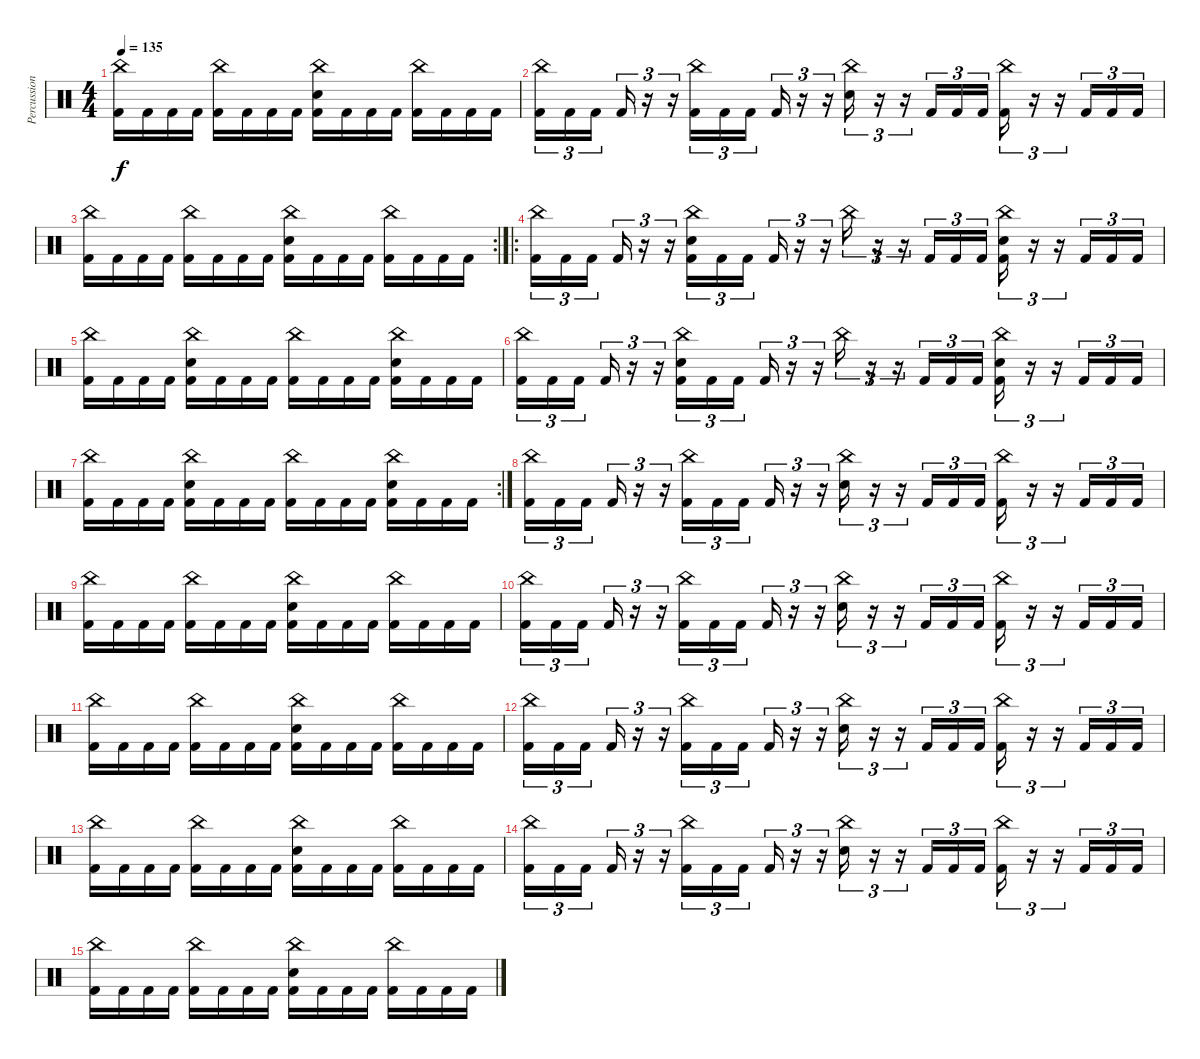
\track ("Percussion" "Percussion") {instrument percussion}
\staff {score}
\articulation defaults
\ts (4 4)
\tempo 135
\clef neutral
\ks c
("China (hit)" "Kick (hit) 2").16{dy f} "Kick (hit) 2".16 "Kick (hit) 2".16 "Kick (hit) 2".16 ("China (hit)" "Kick (hit) 2").16 "Kick (hit) 2".16 "Kick (hit) 2".16 "Kick (hit) 2".16 ("China (hit)" "Kick (hit) 2" "Electric Snare (hit)").16 "Kick (hit) 2".16 "Kick (hit) 2".16 "Kick (hit) 2".16 ("China (hit)" "Kick (hit) 2").16 "Kick (hit) 2".16 "Kick (hit) 2".16 "Kick (hit) 2".16 |
("Kick (hit) 2" "China (hit)").16{tu (3 2)} "Kick (hit) 2".16{tu (3 2)} "Kick (hit) 2".16{tu (3 2) beam splitsecondary} "Kick (hit) 2".16{tu (3 2)} r.16{tu (3 2)} r.16{tu (3 2)} ("Kick (hit) 2" "China (hit)").16{tu (3 2)} "Kick (hit) 2".16{tu (3 2)} "Kick (hit) 2".16{tu (3 2) beam splitsecondary} "Kick (hit) 2".16{tu (3 2)} r.16{tu (3 2)} r.16{tu (3 2)} ("China (hit)" "Electric Snare (hit)").16{tu (3 2)} r.16{tu (3 2)} r.16{tu (3 2)} "Kick (hit) 2".16{tu (3 2)} "Kick (hit) 2".16{tu (3 2)} "Kick (hit) 2".16{tu (3 2)} ("Kick (hit) 2" "China (hit)").16{tu (3 2)} r.16{tu (3 2)} r.16{tu (3 2)} "Kick (hit) 2".16{tu (3 2)} "Kick (hit) 2".16{tu (3 2)} "Kick (hit) 2".16{tu (3 2)} |
\rc 2
("China (hit)" "Kick (hit) 2").16 "Kick (hit) 2".16 "Kick (hit) 2".16 "Kick (hit) 2".16 ("China (hit)" "Kick (hit) 2").16 "Kick (hit) 2".16 "Kick (hit) 2".16 "Kick (hit) 2".16 ("China (hit)" "Kick (hit) 2" "Electric Snare (hit)").16 "Kick (hit) 2".16 "Kick (hit) 2".16 "Kick (hit) 2".16 ("China (hit)" "Kick (hit) 2").16 "Kick (hit) 2".16 "Kick (hit) 2".16 "Kick (hit) 2".16 |
\ro
("Kick (hit) 2" "China (hit)").16{tu (3 2)} "Kick (hit) 2".16{tu (3 2)} "Kick (hit) 2".16{tu (3 2) beam splitsecondary} "Kick (hit) 2".16{tu (3 2)} r.16{tu (3 2)} r.16{tu (3 2)} ("Kick (hit) 2" "China (hit)" "Electric Snare (hit)").16{tu (3 2)} "Kick (hit) 2".16{tu (3 2)} "Kick (hit) 2".16{tu (3 2) beam splitsecondary} "Kick (hit) 2".16{tu (3 2)} r.16{tu (3 2)} r.16{tu (3 2)} "China (hit)".16{tu (3 2)} r.16{tu (3 2)} r.16{tu (3 2)} "Kick (hit) 2".16{tu (3 2)} "Kick (hit) 2".16{tu (3 2)} "Kick (hit) 2".16{tu (3 2)} ("Kick (hit) 2" "China (hit)" "Electric Snare (hit)").16{tu (3 2)} r.16{tu (3 2)} r.16{tu (3 2)} "Kick (hit) 2".16{tu (3 2)} "Kick (hit) 2".16{tu (3 2)} "Kick (hit) 2".16{tu (3 2)} |
("China (hit)" "Kick (hit) 2").16 "Kick (hit) 2".16 "Kick (hit) 2".16 "Kick (hit) 2".16 ("China (hit)" "Kick (hit) 2" "Electric Snare (hit)").16 "Kick (hit) 2".16 "Kick (hit) 2".16 "Kick (hit) 2".16 ("China (hit)" "Kick (hit) 2").16 "Kick (hit) 2".16 "Kick (hit) 2".16 "Kick (hit) 2".16 ("China (hit)" "Kick (hit) 2" "Electric Snare (hit)").16 "Kick (hit) 2".16 "Kick (hit) 2".16 "Kick (hit) 2".16 |
("Kick (hit) 2" "China (hit)").16{tu (3 2)} "Kick (hit) 2".16{tu (3 2)} "Kick (hit) 2".16{tu (3 2) beam splitsecondary} "Kick (hit) 2".16{tu (3 2)} r.16{tu (3 2)} r.16{tu (3 2)} ("Kick (hit) 2" "China (hit)" "Electric Snare (hit)").16{tu (3 2)} "Kick (hit) 2".16{tu (3 2)} "Kick (hit) 2".16{tu (3 2) beam splitsecondary} "Kick (hit) 2".16{tu (3 2)} r.16{tu (3 2)} r.16{tu (3 2)} "China (hit)".16{tu (3 2)} r.16{tu (3 2)} r.16{tu (3 2)} "Kick (hit) 2".16{tu (3 2)} "Kick (hit) 2".16{tu (3 2)} "Kick (hit) 2".16{tu (3 2)} ("Kick (hit) 2" "China (hit)" "Electric Snare (hit)").16{tu (3 2)} r.16{tu (3 2)} r.16{tu (3 2)} "Kick (hit) 2".16{tu (3 2)} "Kick (hit) 2".16{tu (3 2)} "Kick (hit) 2".16{tu (3 2)} |
\rc 2
("China (hit)" "Kick (hit) 2").16 "Kick (hit) 2".16 "Kick (hit) 2".16 "Kick (hit) 2".16 ("China (hit)" "Kick (hit) 2" "Electric Snare (hit)").16 "Kick (hit) 2".16 "Kick (hit) 2".16 "Kick (hit) 2".16 ("China (hit)" "Kick (hit) 2").16 "Kick (hit) 2".16 "Kick (hit) 2".16 "Kick (hit) 2".16 ("China (hit)" "Kick (hit) 2" "Electric Snare (hit)").16 "Kick (hit) 2".16 "Kick (hit) 2".16 "Kick (hit) 2".16 |
("Kick (hit) 2" "China (hit)").16{tu (3 2)} "Kick (hit) 2".16{tu (3 2)} "Kick (hit) 2".16{tu (3 2) beam splitsecondary} "Kick (hit) 2".16{tu (3 2)} r.16{tu (3 2)} r.16{tu (3 2)} ("Kick (hit) 2" "China (hit)").16{tu (3 2)} "Kick (hit) 2".16{tu (3 2)} "Kick (hit) 2".16{tu (3 2) beam splitsecondary} "Kick (hit) 2".16{tu (3 2)} r.16{tu (3 2)} r.16{tu (3 2)} ("China (hit)" "Electric Snare (hit)").16{tu (3 2)} r.16{tu (3 2)} r.16{tu (3 2)} "Kick (hit) 2".16{tu (3 2)} "Kick (hit) 2".16{tu (3 2)} "Kick (hit) 2".16{tu (3 2)} ("Kick (hit) 2" "China (hit)").16{tu (3 2)} r.16{tu (3 2)} r.16{tu (3 2)} "Kick (hit) 2".16{tu (3 2)} "Kick (hit) 2".16{tu (3 2)} "Kick (hit) 2".16{tu (3 2)} |
("China (hit)" "Kick (hit) 2").16 "Kick (hit) 2".16 "Kick (hit) 2".16 "Kick (hit) 2".16 ("China (hit)" "Kick (hit) 2").16 "Kick (hit) 2".16 "Kick (hit) 2".16 "Kick (hit) 2".16 ("China (hit)" "Kick (hit) 2" "Electric Snare (hit)").16 "Kick (hit) 2".16 "Kick (hit) 2".16 "Kick (hit) 2".16 ("China (hit)" "Kick (hit) 2").16 "Kick (hit) 2".16 "Kick (hit) 2".16 "Kick (hit) 2".16 |
("Kick (hit) 2" "China (hit)").16{tu (3 2)} "Kick (hit) 2".16{tu (3 2)} "Kick (hit) 2".16{tu (3 2) beam splitsecondary} "Kick (hit) 2".16{tu (3 2)} r.16{tu (3 2)} r.16{tu (3 2)} ("Kick (hit) 2" "China (hit)").16{tu (3 2)} "Kick (hit) 2".16{tu (3 2)} "Kick (hit) 2".16{tu (3 2) beam splitsecondary} "Kick (hit) 2".16{tu (3 2)} r.16{tu (3 2)} r.16{tu (3 2)} ("China (hit)" "Electric Snare (hit)").16{tu (3 2)} r.16{tu (3 2)} r.16{tu (3 2)} "Kick (hit) 2".16{tu (3 2)} "Kick (hit) 2".16{tu (3 2)} "Kick (hit) 2".16{tu (3 2)} ("Kick (hit) 2" "China (hit)").16{tu (3 2)} r.16{tu (3 2)} r.16{tu (3 2)} "Kick (hit) 2".16{tu (3 2)} "Kick (hit) 2".16{tu (3 2)} "Kick (hit) 2".16{tu (3 2)} |
("China (hit)" "Kick (hit) 2").16 "Kick (hit) 2".16 "Kick (hit) 2".16 "Kick (hit) 2".16 ("China (hit)" "Kick (hit) 2").16 "Kick (hit) 2".16 "Kick (hit) 2".16 "Kick (hit) 2".16 ("China (hit)" "Kick (hit) 2" "Electric Snare (hit)").16 "Kick (hit) 2".16 "Kick (hit) 2".16 "Kick (hit) 2".16 ("China (hit)" "Kick (hit) 2").16 "Kick (hit) 2".16 "Kick (hit) 2".16 "Kick (hit) 2".16 |
("Kick (hit) 2" "China (hit)").16{tu (3 2)} "Kick (hit) 2".16{tu (3 2)} "Kick (hit) 2".16{tu (3 2) beam splitsecondary} "Kick (hit) 2".16{tu (3 2)} r.16{tu (3 2)} r.16{tu (3 2)} ("Kick (hit) 2" "China (hit)").16{tu (3 2)} "Kick (hit) 2".16{tu (3 2)} "Kick (hit) 2".16{tu (3 2) beam splitsecondary} "Kick (hit) 2".16{tu (3 2)} r.16{tu (3 2)} r.16{tu (3 2)} ("China (hit)" "Electric Snare (hit)").16{tu (3 2)} r.16{tu (3 2)} r.16{tu (3 2)} "Kick (hit) 2".16{tu (3 2)} "Kick (hit) 2".16{tu (3 2)} "Kick (hit) 2".16{tu (3 2)} ("Kick (hit) 2" "China (hit)").16{tu (3 2)} r.16{tu (3 2)} r.16{tu (3 2)} "Kick (hit) 2".16{tu (3 2)} "Kick (hit) 2".16{tu (3 2)} "Kick (hit) 2".16{tu (3 2)} |
("China (hit)" "Kick (hit) 2").16 "Kick (hit) 2".16 "Kick (hit) 2".16 "Kick (hit) 2".16 ("China (hit)" "Kick (hit) 2").16 "Kick (hit) 2".16 "Kick (hit) 2".16 "Kick (hit) 2".16 ("China (hit)" "Kick (hit) 2" "Electric Snare (hit)").16 "Kick (hit) 2".16 "Kick (hit) 2".16 "Kick (hit) 2".16 ("China (hit)" "Kick (hit) 2").16 "Kick (hit) 2".16 "Kick (hit) 2".16 "Kick (hit) 2".16 |
("Kick (hit) 2" "China (hit)").16{tu (3 2)} "Kick (hit) 2".16{tu (3 2)} "Kick (hit) 2".16{tu (3 2) beam splitsecondary} "Kick (hit) 2".16{tu (3 2)} r.16{tu (3 2)} r.16{tu (3 2)} ("Kick (hit) 2" "China (hit)").16{tu (3 2)} "Kick (hit) 2".16{tu (3 2)} "Kick (hit) 2".16{tu (3 2) beam splitsecondary} "Kick (hit) 2".16{tu (3 2)} r.16{tu (3 2)} r.16{tu (3 2)} ("China (hit)" "Electric Snare (hit)").16{tu (3 2)} r.16{tu (3 2)} r.16{tu (3 2)} "Kick (hit) 2".16{tu (3 2)} "Kick (hit) 2".16{tu (3 2)} "Kick (hit) 2".16{tu (3 2)} ("Kick (hit) 2" "China (hit)").16{tu (3 2)} r.16{tu (3 2)} r.16{tu (3 2)} "Kick (hit) 2".16{tu (3 2)} "Kick (hit) 2".16{tu (3 2)} "Kick (hit) 2".16{tu (3 2)} |
("China (hit)" "Kick (hit) 2").16 "Kick (hit) 2".16 "Kick (hit) 2".16 "Kick (hit) 2".16 ("China (hit)" "Kick (hit) 2").16 "Kick (hit) 2".16 "Kick (hit) 2".16 "Kick (hit) 2".16 ("China (hit)" "Kick (hit) 2" "Electric Snare (hit)").16 "Kick (hit) 2".16 "Kick (hit) 2".16 "Kick (hit) 2".16 ("China (hit)" "Kick (hit) 2").16 "Kick (hit) 2".16 "Kick (hit) 2".16 "Kick (hit) 2".16
